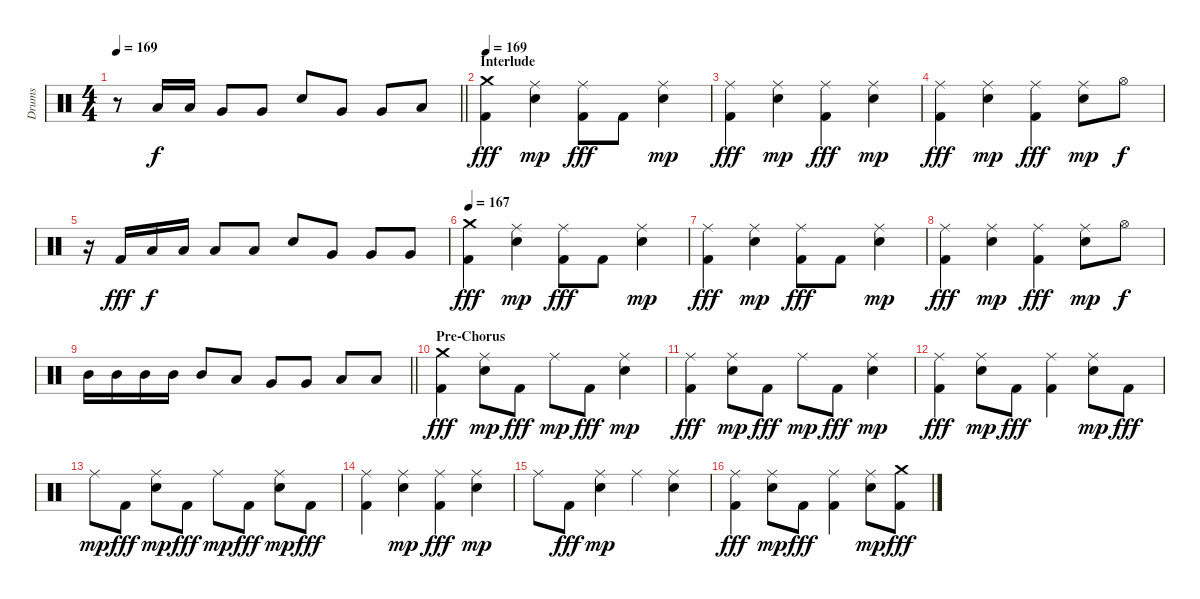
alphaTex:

\track ("Drums" "Drums") {instrument percussion}
\staff {score}
\articulation defaults
\ts (4 4)
\tempo 169
\clef neutral
\barLineRight lightlight
\ks c
r.8{dy fff} "Low Tom (hit)".16{dy f} "Low Tom (hit)".16 "Very Low Tom (hit)".8 "Very Low Tom (hit)".8 "Electric Snare (hit)".8 "Very Low Tom (hit)".8 "Very Low Tom (hit)".8 "Low Floor Tom (hit)".8 |
\section ("" "Interlude")
\tempo 169
("Crash medium (hit)" "Kick (hit) 2").4{dy fff} ("Ride (middle)" "Electric Snare (hit)").4{dy mp} ("Ride (middle)" "Kick (hit) 2").8{dy fff} "Kick (hit) 2".8 ("Ride (middle)" "Electric Snare (hit)").4{dy mp} |
("Ride (middle)" "Kick (hit) 2").4{dy fff} ("Ride (middle)" "Electric Snare (hit)").4{dy mp} ("Ride (middle)" "Kick (hit) 2").4{dy fff} ("Ride (middle)" "Electric Snare (hit)").4{dy mp} |
("Ride (middle)" "Kick (hit) 2").4{dy fff} ("Ride (middle)" "Electric Snare (hit)").4{dy mp} ("Ride (middle)" "Kick (hit) 2").4{dy fff} ("Ride (middle)" "Electric Snare (hit)").8{dy mp} "Hi-Hat (open)".8{dy f} |
r.16 "Kick (hit) 2".16{dy fff} "Low Tom (hit)".16{dy f} "Low Tom (hit)".16 "Low Tom (hit)".8 "Low Tom (hit)".8 "Electric Snare (hit)".8 "Very Low Tom (hit)".8 "Very Low Tom (hit)".8 "Very Low Tom (hit)".8 |
\tempo 167
("Crash medium (hit)" "Kick (hit) 2").4{dy fff} ("Ride (middle)" "Electric Snare (hit)").4{dy mp} ("Ride (middle)" "Kick (hit) 2").8{dy fff} "Kick (hit) 2".8 ("Ride (middle)" "Electric Snare (hit)").4{dy mp} |
("Ride (middle)" "Kick (hit) 2").4{dy fff} ("Ride (middle)" "Electric Snare (hit)").4{dy mp} ("Ride (middle)" "Kick (hit) 2").8{dy fff} "Kick (hit) 2".8 ("Ride (middle)" "Electric Snare (hit)").4{dy mp} |
("Ride (middle)" "Kick (hit) 2").4{dy fff} ("Ride (middle)" "Electric Snare (hit)").4{dy mp} ("Ride (middle)" "Kick (hit) 2").4{dy fff} ("Ride (middle)" "Electric Snare (hit)").8{dy mp} "Hi-Hat (open)".8{dy f} |
\barLineRight lightlight "Mid Tom (hit)".16 "Mid Tom (hit)".16 "Mid Tom (hit)".16 "Mid Tom (hit)".16 "Mid Tom (hit)".8 "Low Tom (hit)".8 "Very Low Tom (hit)".8 "Very Low Tom (hit)".8 "Low Floor Tom (hit)".8 "Low Floor Tom (hit)".8
|
\section ("" "Pre-Chorus")
("Crash medium (hit)" "Kick (hit) 2").4{dy fff} ("Ride (middle)" "Electric Snare (hit)").8{dy mp} "Kick (hit) 2".8{dy fff} "Ride (middle)".8{dy mp} "Kick (hit) 2".8{dy fff} ("Ride (middle)" "Electric Snare (hit)").4{dy mp} |
("Ride (middle)" "Kick (hit) 2").4{dy fff} ("Ride (middle)" "Electric Snare (hit)").8{dy mp} "Kick (hit) 2".8{dy fff} "Ride (middle)".8{dy mp} "Kick (hit) 2".8{dy fff} ("Ride (middle)" "Electric Snare (hit)").4{dy mp} |
("Ride (middle)" "Kick (hit) 2").4{dy fff} ("Ride (middle)" "Electric Snare (hit)").8{dy mp} "Kick (hit) 2".8{dy fff} ("Ride (middle)" "Kick (hit) 2").4 ("Ride (middle)" "Electric Snare (hit)").8{dy mp} "Kick (hit) 2".8{dy fff} |
"Ride (middle)".8{dy mp} "Kick (hit) 2".8{dy fff} ("Ride (middle)" "Electric Snare (hit)").8{dy mp} "Kick (hit) 2".8{dy fff} "Ride (middle)".8{dy mp} "Kick (hit) 2".8{dy fff} ("Ride (middle)" "Electric Snare (hit)").8{dy mp} "Kick (hit) 2".8{dy fff} |
("Ride (middle)" "Kick (hit) 2").4 ("Ride (middle)" "Electric Snare (hit)").4{dy mp} ("Ride (middle)" "Kick (hit) 2").4{dy fff} ("Ride (middle)" "Electric Snare (hit)").4{dy mp} |
"Ride (middle)".8 "Kick (hit) 2".8{dy fff} ("Ride (middle)" "Electric Snare (hit)").4{dy mp} "Ride (middle)".4 ("Ride (middle)" "Electric Snare (hit)").4 |
("Ride (middle)" "Kick (hit) 2").4{dy fff} ("Ride (middle)" "Electric Snare (hit)").8{dy mp} "Kick (hit) 2".8{dy fff} ("Ride (middle)" "Kick (hit) 2").4 ("Ride (middle)" "Electric Snare (hit)").8{dy mp} ("Crash medium (hit)" "Kick (hit) 2").8{dy fff}
